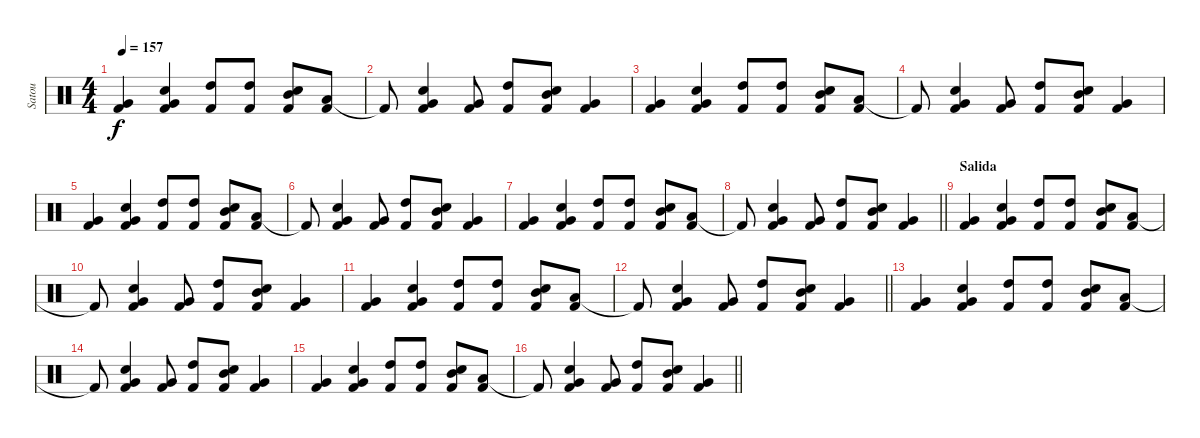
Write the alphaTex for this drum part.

\track ("Satou" "Satou") {instrument percussion}
\staff {score}
\articulation defaults
\ts (4 4)
\tempo 157
\clef neutral
\ks c
("Very Low Tom (hit)" "Kick (hit) 2").4{dy f} ("Very Low Tom (hit)" "Kick (hit) 2" "Snare (hit) 2").4 ("High Tom (hit)" "Kick (hit) 2").8 ("High Tom (hit)" "Kick (hit) 2").8 ("Mid Tom (hit)" "Kick (hit) 2" "Snare (hit) 2").8 ("Low Tom (hit)" "Kick (hit) 2").8 |
"Kick (hit) 2"{t}.8 ("Very Low Tom (hit)" "Kick (hit) 2" "Snare (hit) 2").4 ("Very Low Tom (hit)" "Kick (hit) 2").8 ("High Tom (hit)" "Kick (hit) 2").8 ("Mid Tom (hit)" "Kick (hit) 2" "Snare (hit) 2").8 ("Very Low Tom (hit)" "Kick (hit) 2").4 |
("Very Low Tom (hit)" "Kick (hit) 2").4 ("Very Low Tom (hit)" "Kick (hit) 2" "Snare (hit) 2").4 ("High Tom (hit)" "Kick (hit) 2").8 ("High Tom (hit)" "Kick (hit) 2").8 ("Mid Tom (hit)" "Kick (hit) 2" "Snare (hit) 2").8 ("Low Tom (hit)" "Kick (hit) 2").8 |
"Kick (hit) 2"{t}.8 ("Very Low Tom (hit)" "Kick (hit) 2" "Snare (hit) 2").4 ("Very Low Tom (hit)" "Kick (hit) 2").8 ("High Tom (hit)" "Kick (hit) 2").8 ("Mid Tom (hit)" "Kick (hit) 2" "Snare (hit) 2").8 ("Very Low Tom (hit)" "Kick (hit) 2").4 |
("Very Low Tom (hit)" "Kick (hit) 2").4 ("Very Low Tom (hit)" "Kick (hit) 2" "Snare (hit) 2").4 ("High Tom (hit)" "Kick (hit) 2").8 ("High Tom (hit)" "Kick (hit) 2").8 ("Mid Tom (hit)" "Kick (hit) 2" "Snare (hit) 2").8 ("Low Tom (hit)" "Kick (hit) 2").8 |
"Kick (hit) 2"{t}.8 ("Very Low Tom (hit)" "Kick (hit) 2" "Snare (hit) 2").4 ("Very Low Tom (hit)" "Kick (hit) 2").8 ("High Tom (hit)" "Kick (hit) 2").8 ("Mid Tom (hit)" "Kick (hit) 2" "Snare (hit) 2").8 ("Very Low Tom (hit)" "Kick (hit) 2").4 |
("Very Low Tom (hit)" "Kick (hit) 2").4 ("Very Low Tom (hit)" "Kick (hit) 2" "Snare (hit) 2").4 ("High Tom (hit)" "Kick (hit) 2").8 ("High Tom (hit)" "Kick (hit) 2").8 ("Mid Tom (hit)" "Kick (hit) 2" "Snare (hit) 2").8 ("Low Tom (hit)" "Kick (hit) 2").8 |
\barLineRight lightlight "Kick (hit) 2"{t}.8
("Very Low Tom (hit)" "Kick (hit) 2" "Snare (hit) 2").4 ("Very Low Tom (hit)" "Kick (hit) 2").8 ("High Tom (hit)" "Kick (hit) 2").8 ("Mid Tom (hit)" "Kick (hit) 2" "Snare (hit) 2").8 ("Very Low Tom (hit)" "Kick (hit) 2").4 |
\section ("" "Salida")
("Very Low Tom (hit)" "Kick (hit) 2").4 ("Very Low Tom (hit)" "Kick (hit) 2" "Snare (hit) 2").4 ("High Tom (hit)" "Kick (hit) 2").8 ("High Tom (hit)" "Kick (hit) 2").8 ("Mid Tom (hit)" "Kick (hit) 2" "Snare (hit) 2").8 ("Low Tom (hit)" "Kick (hit) 2").8 |
"Kick (hit) 2"{t}.8 ("Very Low Tom (hit)" "Kick (hit) 2" "Snare (hit) 2").4 ("Very Low Tom (hit)" "Kick (hit) 2").8 ("High Tom (hit)" "Kick (hit) 2").8 ("Mid Tom (hit)" "Kick (hit) 2" "Snare (hit) 2").8 ("Very Low Tom (hit)" "Kick (hit) 2").4 |
("Very Low Tom (hit)" "Kick (hit) 2").4 ("Very Low Tom (hit)" "Kick (hit) 2" "Snare (hit) 2").4 ("High Tom (hit)" "Kick (hit) 2").8 ("High Tom (hit)" "Kick (hit) 2").8 ("Mid Tom (hit)" "Kick (hit) 2" "Snare (hit) 2").8 ("Low Tom (hit)" "Kick (hit) 2").8 |
\barLineRight lightlight "Kick (hit) 2"{t}.8
("Very Low Tom (hit)" "Kick (hit) 2" "Snare (hit) 2").4 ("Very Low Tom (hit)" "Kick (hit) 2").8 ("High Tom (hit)" "Kick (hit) 2").8 ("Mid Tom (hit)" "Kick (hit) 2" "Snare (hit) 2").8 ("Very Low Tom (hit)" "Kick (hit) 2").4 |
("Very Low Tom (hit)" "Kick (hit) 2").4 ("Very Low Tom (hit)" "Kick (hit) 2" "Snare (hit) 2").4 ("High Tom (hit)" "Kick (hit) 2").8 ("High Tom (hit)" "Kick (hit) 2").8 ("Mid Tom (hit)" "Kick (hit) 2" "Snare (hit) 2").8 ("Low Tom (hit)" "Kick (hit) 2").8 |
"Kick (hit) 2"{t}.8 ("Very Low Tom (hit)" "Kick (hit) 2" "Snare (hit) 2").4 ("Very Low Tom (hit)" "Kick (hit) 2").8 ("High Tom (hit)" "Kick (hit) 2").8 ("Mid Tom (hit)" "Kick (hit) 2" "Snare (hit) 2").8 ("Very Low Tom (hit)" "Kick (hit) 2").4 |
("Very Low Tom (hit)" "Kick (hit) 2").4 ("Very Low Tom (hit)" "Kick (hit) 2" "Snare (hit) 2").4 ("High Tom (hit)" "Kick (hit) 2").8 ("High Tom (hit)" "Kick (hit) 2").8 ("Mid Tom (hit)" "Kick (hit) 2" "Snare (hit) 2").8 ("Low Tom (hit)" "Kick (hit) 2").8 |
\barLineRight lightlight "Kick (hit) 2"{t}.8
("Very Low Tom (hit)" "Kick (hit) 2" "Snare (hit) 2").4 ("Very Low Tom (hit)" "Kick (hit) 2").8 ("High Tom (hit)" "Kick (hit) 2").8 ("Mid Tom (hit)" "Kick (hit) 2" "Snare (hit) 2").8 ("Very Low Tom (hit)" "Kick (hit) 2").4
